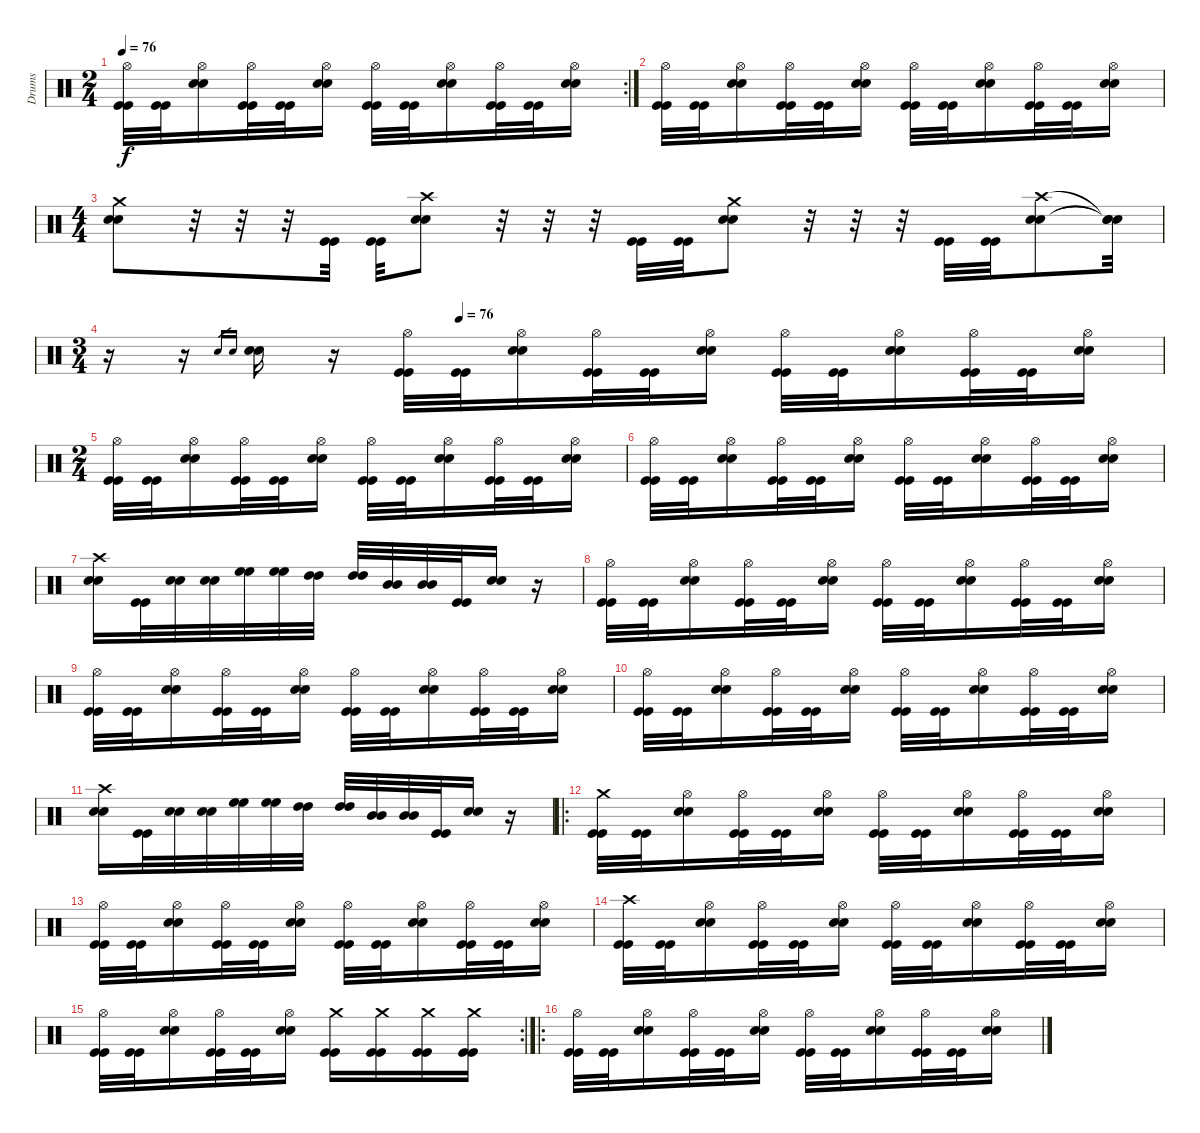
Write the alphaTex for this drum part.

\track ("Drums" "Drums") {instrument percussion}
\staff {score}
\articulation defaults
\rc 2
\ts (2 4)
\tempo 76
\clef neutral
\ks c
("Hi-Hat (open)" "Kick (hit)" "Kick (hit)").32{dy f} ("Kick (hit)" "Kick (hit)").32 ("Hi-Hat (open)" "Snare (hit) 2" "Snare (hit) 2").16 ("Hi-Hat (open)" "Kick (hit)" "Kick (hit)").32 ("Kick (hit)" "Kick (hit)").32 ("Hi-Hat (open)" "Snare (hit) 2" "Snare (hit) 2").16 ("Hi-Hat (open)" "Kick (hit)" "Kick (hit)").32 ("Kick (hit)" "Kick (hit)").32 ("Hi-Hat (open)" "Snare (hit) 2" "Snare (hit) 2").16 ("Hi-Hat (open)" "Kick (hit)" "Kick (hit)").32 ("Kick (hit)" "Kick (hit)").32 ("Hi-Hat (open)" "Snare (hit) 2" "Snare (hit) 2").16 |
("Hi-Hat (open)" "Kick (hit)" "Kick (hit)").32 ("Kick (hit)" "Kick (hit)").32 ("Hi-Hat (open)" "Snare (hit) 2" "Snare (hit) 2").16 ("Hi-Hat (open)" "Kick (hit)" "Kick (hit)").32 ("Kick (hit)" "Kick (hit)").32 ("Hi-Hat (open)" "Snare (hit) 2" "Snare (hit) 2").16 ("Hi-Hat (open)" "Kick (hit)" "Kick (hit)").32 ("Kick (hit)" "Kick (hit)").32 ("Hi-Hat (open)" "Snare (hit) 2" "Snare (hit) 2").16 ("Hi-Hat (open)" "Kick (hit)" "Kick (hit)").32 ("Kick (hit)" "Kick (hit)").32 ("Hi-Hat (open)" "Snare (hit) 2" "Snare (hit) 2").16 |
\ts (4 4)
("Crash medium (hit)" "Snare (hit) 2" "Snare (hit) 2").8 r.32 r.32 r.32 ("Kick (hit)" "Kick (hit)").32 ("Kick (hit)" "Kick (hit)").32 ("Crash high (hit)" "Snare (hit) 2" "Snare (hit) 2").8 r.32 r.32 r.32 ("Kick (hit)" "Kick (hit)").32 ("Kick (hit)" "Kick (hit)").32 ("Crash medium (hit)" "Snare (hit) 2" "Snare (hit) 2").8 r.32 r.32 r.32 ("Kick (hit)" "Kick (hit)").32 ("Kick (hit)" "Kick (hit)").32 ("Crash high (hit)" "Snare (hit) 2" "Snare (hit) 2").8 ("Snare (hit)"{t} "Snare (hit)"{t} "Snare (hit)"{t}).32 |
\ts (3 4)
\tempo (76 0.3333333333333333)
r.16 r.16 "Snare (hit) 2".16{gr} "Snare (hit) 2".16{gr} ("Snare (hit) 2" "Snare (hit) 2").16 r.16 ("Hi-Hat (open)" "Kick (hit)" "Kick (hit)").32 ("Kick (hit)" "Kick (hit)").32 ("Hi-Hat (open)" "Snare (hit) 2" "Snare (hit) 2").16 ("Hi-Hat (open)" "Kick (hit)" "Kick (hit)").32 ("Kick (hit)" "Kick (hit)").32 ("Hi-Hat (open)" "Snare (hit) 2" "Snare (hit) 2").16 ("Hi-Hat (open)" "Kick (hit)" "Kick (hit)").32 ("Kick (hit)" "Kick (hit)").32 ("Hi-Hat (open)" "Snare (hit) 2" "Snare (hit) 2").16 ("Hi-Hat (open)" "Kick (hit)" "Kick (hit)").32 ("Kick (hit)" "Kick (hit)").32 ("Hi-Hat (open)" "Snare (hit) 2" "Snare (hit) 2").16 |
\ts (2 4)
("Hi-Hat (open)" "Kick (hit)" "Kick (hit)").32 ("Kick (hit)" "Kick (hit)").32 ("Hi-Hat (open)" "Snare (hit) 2" "Snare (hit) 2").16 ("Hi-Hat (open)" "Kick (hit)" "Kick (hit)").32 ("Kick (hit)" "Kick (hit)").32 ("Hi-Hat (open)" "Snare (hit) 2" "Snare (hit) 2").16 ("Hi-Hat (open)" "Kick (hit)" "Kick (hit)").32 ("Kick (hit)" "Kick (hit)").32 ("Hi-Hat (open)" "Snare (hit) 2" "Snare (hit) 2").16 ("Hi-Hat (open)" "Kick (hit)" "Kick (hit)").32 ("Kick (hit)" "Kick (hit)").32 ("Hi-Hat (open)" "Snare (hit) 2" "Snare (hit) 2").16 |
("Hi-Hat (open)" "Kick (hit)" "Kick (hit)").32 ("Kick (hit)" "Kick (hit)").32 ("Hi-Hat (open)" "Snare (hit) 2" "Snare (hit) 2").16 ("Hi-Hat (open)" "Kick (hit)" "Kick (hit)").32 ("Kick (hit)" "Kick (hit)").32 ("Hi-Hat (open)" "Snare (hit) 2" "Snare (hit) 2").16 ("Hi-Hat (open)" "Kick (hit)" "Kick (hit)").32 ("Kick (hit)" "Kick (hit)").32 ("Hi-Hat (open)" "Snare (hit) 2" "Snare (hit) 2").16 ("Hi-Hat (open)" "Kick (hit)" "Kick (hit)").32 ("Kick (hit)" "Kick (hit)").32 ("Hi-Hat (open)" "Snare (hit) 2" "Snare (hit) 2").16 |
("Crash high (hit)" "Snare (hit) 2" "Snare (hit) 2").16 ("Kick (hit)" "Kick (hit)").32 ("Snare (hit) 2" "Snare (hit) 2").32 ("Snare (hit) 2" "Snare (hit) 2").32 ("High Floor Tom (hit)" "High Floor Tom (hit)").32 ("High Floor Tom (hit)" "High Floor Tom (hit)").32 ("High Tom (hit)" "High Tom (hit)").32 ("High Tom (hit)" "High Tom (hit)").32 ("Mid Tom (hit)" "Mid Tom (hit)").32 ("Mid Tom (hit)" "Mid Tom (hit)").32 ("Kick (hit)" "Kick (hit)").32 ("Snare (hit) 2" "Snare (hit) 2").16 r.16 |
("Hi-Hat (open)" "Kick (hit)" "Kick (hit)").32 ("Kick (hit)" "Kick (hit)").32 ("Hi-Hat (open)" "Snare (hit) 2" "Snare (hit) 2").16 ("Hi-Hat (open)" "Kick (hit)" "Kick (hit)").32 ("Kick (hit)" "Kick (hit)").32 ("Hi-Hat (open)" "Snare (hit) 2" "Snare (hit) 2").16 ("Hi-Hat (open)" "Kick (hit)" "Kick (hit)").32 ("Kick (hit)" "Kick (hit)").32 ("Hi-Hat (open)" "Snare (hit) 2" "Snare (hit) 2").16 ("Hi-Hat (open)" "Kick (hit)" "Kick (hit)").32 ("Kick (hit)" "Kick (hit)").32 ("Hi-Hat (open)" "Snare (hit) 2" "Snare (hit) 2").16 |
("Hi-Hat (open)" "Kick (hit)" "Kick (hit)").32 ("Kick (hit)" "Kick (hit)").32 ("Hi-Hat (open)" "Snare (hit) 2" "Snare (hit) 2").16 ("Hi-Hat (open)" "Kick (hit)" "Kick (hit)").32 ("Kick (hit)" "Kick (hit)").32 ("Hi-Hat (open)" "Snare (hit) 2" "Snare (hit) 2").16 ("Hi-Hat (open)" "Kick (hit)" "Kick (hit)").32 ("Kick (hit)" "Kick (hit)").32 ("Hi-Hat (open)" "Snare (hit) 2" "Snare (hit) 2").16 ("Hi-Hat (open)" "Kick (hit)" "Kick (hit)").32 ("Kick (hit)" "Kick (hit)").32 ("Hi-Hat (open)" "Snare (hit) 2" "Snare (hit) 2").16 |
("Hi-Hat (open)" "Kick (hit)" "Kick (hit)").32 ("Kick (hit)" "Kick (hit)").32 ("Hi-Hat (open)" "Snare (hit) 2" "Snare (hit) 2").16 ("Hi-Hat (open)" "Kick (hit)" "Kick (hit)").32 ("Kick (hit)" "Kick (hit)").32 ("Hi-Hat (open)" "Snare (hit) 2" "Snare (hit) 2").16 ("Hi-Hat (open)" "Kick (hit)" "Kick (hit)").32 ("Kick (hit)" "Kick (hit)").32 ("Hi-Hat (open)" "Snare (hit) 2" "Snare (hit) 2").16 ("Hi-Hat (open)" "Kick (hit)" "Kick (hit)").32 ("Kick (hit)" "Kick (hit)").32 ("Hi-Hat (open)" "Snare (hit) 2" "Snare (hit) 2").16 |
("Crash high (hit)" "Snare (hit) 2" "Snare (hit) 2").16 ("Kick (hit)" "Kick (hit)").32 ("Snare (hit) 2" "Snare (hit) 2").32 ("Snare (hit) 2" "Snare (hit) 2").32 ("High Floor Tom (hit)" "High Floor Tom (hit)").32 ("High Floor Tom (hit)" "High Floor Tom (hit)").32 ("High Tom (hit)" "High Tom (hit)").32 ("High Tom (hit)" "High Tom (hit)").32 ("Mid Tom (hit)" "Mid Tom (hit)").32 ("Mid Tom (hit)" "Mid Tom (hit)").32 ("Kick (hit)" "Kick (hit)").32 ("Snare (hit) 2" "Snare (hit) 2").16 r.16 |
\ro
("Crash medium (hit)" "Kick (hit)" "Kick (hit)").32 ("Kick (hit)" "Kick (hit)").32 ("Hi-Hat (open)" "Snare (hit) 2" "Snare (hit) 2").16 ("Hi-Hat (open)" "Kick (hit)" "Kick (hit)").32 ("Kick (hit)" "Kick (hit)").32 ("Hi-Hat (open)" "Snare (hit) 2" "Snare (hit) 2").16 ("Hi-Hat (open)" "Kick (hit)" "Kick (hit)").32 ("Kick (hit)" "Kick (hit)").32 ("Hi-Hat (open)" "Snare (hit) 2" "Snare (hit) 2").16 ("Hi-Hat (open)" "Kick (hit)" "Kick (hit)").32 ("Kick (hit)" "Kick (hit)").32 ("Hi-Hat (open)" "Snare (hit) 2" "Snare (hit) 2").16 |
("Hi-Hat (open)" "Kick (hit)" "Kick (hit)").32 ("Kick (hit)" "Kick (hit)").32 ("Hi-Hat (open)" "Snare (hit) 2" "Snare (hit) 2").16 ("Hi-Hat (open)" "Kick (hit)" "Kick (hit)").32 ("Kick (hit)" "Kick (hit)").32 ("Hi-Hat (open)" "Snare (hit) 2" "Snare (hit) 2").16 ("Hi-Hat (open)" "Kick (hit)" "Kick (hit)").32 ("Kick (hit)" "Kick (hit)").32 ("Hi-Hat (open)" "Snare (hit) 2" "Snare (hit) 2").16 ("Hi-Hat (open)" "Kick (hit)" "Kick (hit)").32 ("Kick (hit)" "Kick (hit)").32 ("Hi-Hat (open)" "Snare (hit) 2" "Snare (hit) 2").16 |
("Crash high (hit)" "Kick (hit)" "Kick (hit)").32 ("Kick (hit)" "Kick (hit)").32 ("Hi-Hat (open)" "Snare (hit) 2" "Snare (hit) 2").16 ("Hi-Hat (open)" "Kick (hit)" "Kick (hit)").32 ("Kick (hit)" "Kick (hit)").32 ("Hi-Hat (open)" "Snare (hit) 2" "Snare (hit) 2").16 ("Hi-Hat (open)" "Kick (hit)" "Kick (hit)").32 ("Kick (hit)" "Kick (hit)").32 ("Hi-Hat (open)" "Snare (hit) 2" "Snare (hit) 2").16 ("Hi-Hat (open)" "Kick (hit)" "Kick (hit)").32 ("Kick (hit)" "Kick (hit)").32 ("Hi-Hat (open)" "Snare (hit) 2" "Snare (hit) 2").16 |
\rc 2
("Hi-Hat (open)" "Kick (hit)" "Kick (hit)").32 ("Kick (hit)" "Kick (hit)").32 ("Hi-Hat (open)" "Snare (hit) 2" "Snare (hit) 2").16 ("Hi-Hat (open)" "Kick (hit)" "Kick (hit)").32 ("Kick (hit)" "Kick (hit)").32 ("Hi-Hat (open)" "Snare (hit) 2" "Snare (hit) 2").16 ("Crash medium (hit)" "Kick (hit)" "Kick (hit)").16 ("Crash medium (hit)" "Kick (hit)" "Kick (hit)").16 ("Crash medium (hit)" "Kick (hit)" "Kick (hit)").16 ("Crash medium (hit)" "Kick (hit)" "Kick (hit)").16 |
\ro
("Hi-Hat (open)" "Kick (hit)" "Kick (hit)").32 ("Kick (hit)" "Kick (hit)").32 ("Hi-Hat (open)" "Snare (hit) 2" "Snare (hit) 2").16 ("Hi-Hat (open)" "Kick (hit)" "Kick (hit)").32 ("Kick (hit)" "Kick (hit)").32 ("Hi-Hat (open)" "Snare (hit) 2" "Snare (hit) 2").16 ("Hi-Hat (open)" "Kick (hit)" "Kick (hit)").32 ("Kick (hit)" "Kick (hit)").32 ("Hi-Hat (open)" "Snare (hit) 2" "Snare (hit) 2").16 ("Hi-Hat (open)" "Kick (hit)" "Kick (hit)").32 ("Kick (hit)" "Kick (hit)").32 ("Hi-Hat (open)" "Snare (hit) 2" "Snare (hit) 2").16
